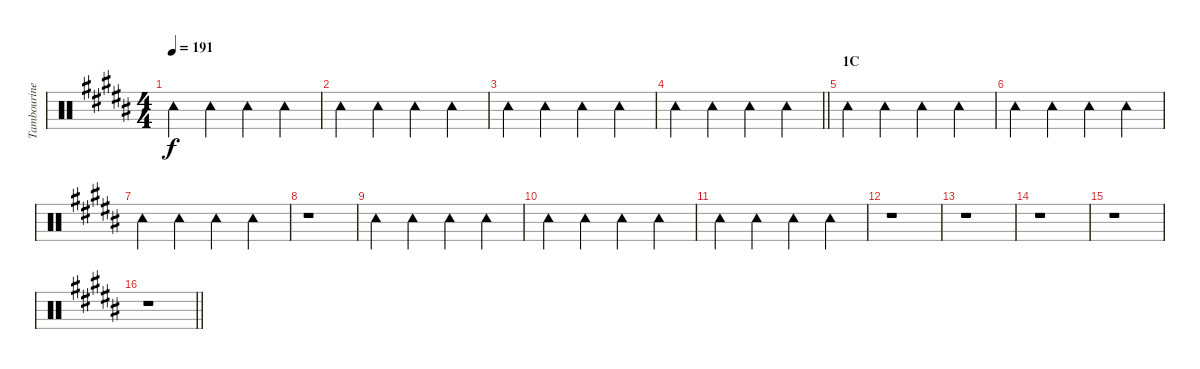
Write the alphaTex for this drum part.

\track ("Tambourine" "Tambourine") {instrument percussion}
\staff {score}
\articulation defaults
\ts (4 4)
\tempo 191
\clef neutral
\ks b "Tambourine (hit)".4{dy f} "Tambourine (hit)".4 "Tambourine (hit)".4 "Tambourine (hit)".4
|
"Tambourine (hit)".4 "Tambourine (hit)".4 "Tambourine (hit)".4 "Tambourine (hit)".4 |
"Tambourine (hit)".4 "Tambourine (hit)".4 "Tambourine (hit)".4 "Tambourine (hit)".4 |
\barLineRight lightlight "Tambourine (hit)".4 "Tambourine (hit)".4 "Tambourine (hit)".4 "Tambourine (hit)".4
|
\section ("" "1C")
"Tambourine (hit)".4 "Tambourine (hit)".4 "Tambourine (hit)".4 "Tambourine (hit)".4 |
"Tambourine (hit)".4 "Tambourine (hit)".4 "Tambourine (hit)".4 "Tambourine (hit)".4 |
"Tambourine (hit)".4 "Tambourine (hit)".4 "Tambourine (hit)".4 "Tambourine (hit)".4 |
r.1 |
"Tambourine (hit)".4 "Tambourine (hit)".4 "Tambourine (hit)".4 "Tambourine (hit)".4 |
"Tambourine (hit)".4 "Tambourine (hit)".4 "Tambourine (hit)".4 "Tambourine (hit)".4 |
"Tambourine (hit)".4 "Tambourine (hit)".4 "Tambourine (hit)".4 "Tambourine (hit)".4 |
r.1 |
r.1 |
r.1 |
r.1 |
\barLineRight lightlight
r.1
